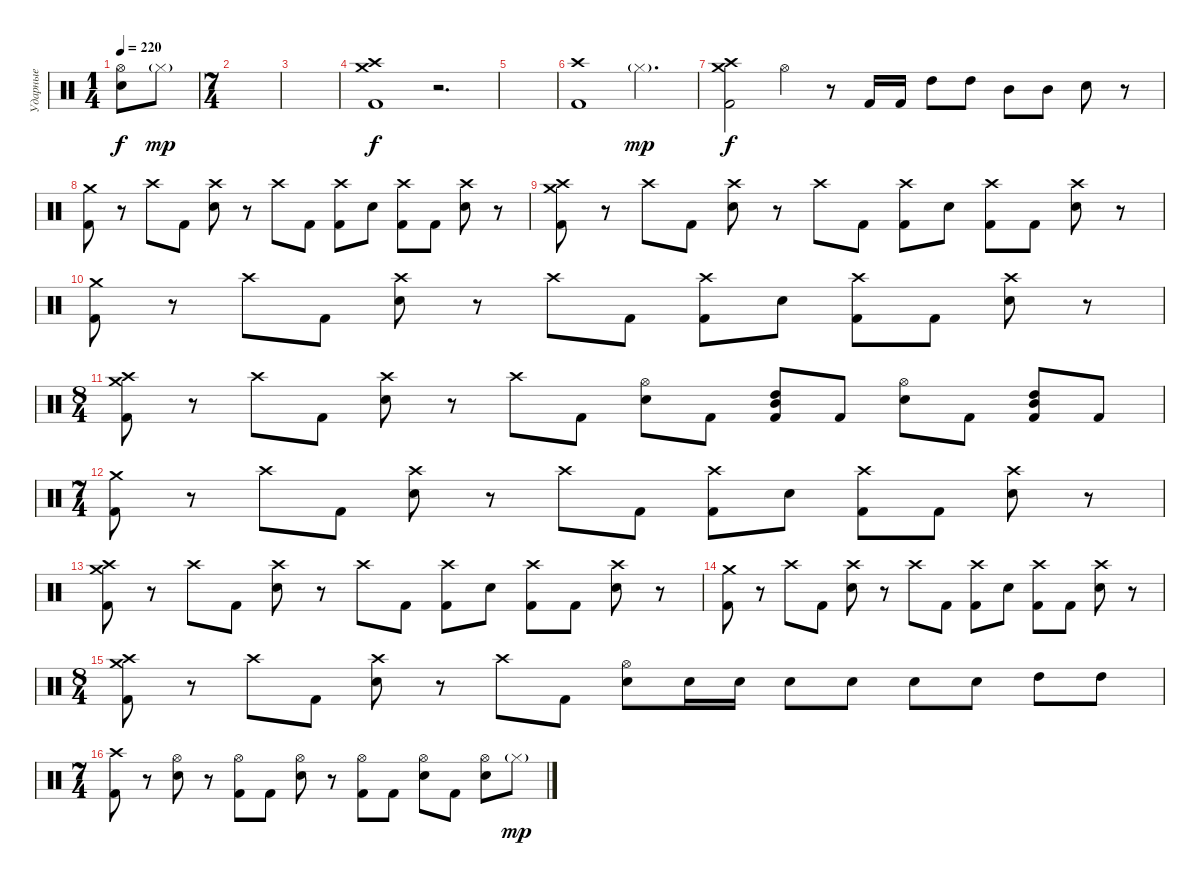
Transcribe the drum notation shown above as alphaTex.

\track ("Ударные" "Ударные") {instrument percussion}
\staff {score}
\articulation defaults
\ts (1 4)
\tempo 220
\clef neutral
\ks c
("Hi-Hat (open)" "Electric Snare (hit)").8{dy f} "Hi-Hat (closed)"{g}.8{dy mp} |
\ts (7 4)
|
|
("Crash high (hit)" "Crash medium (hit)" "Kick (hit) 2").1{dy f} r.2{d} |
|
("Crash high (hit)" "Kick (hit) 2").1 "Hi-Hat (closed)"{g}.2{d dy mp} |
("Crash high (hit)" "Crash medium (hit)" "Kick (hit) 2").2{dy f} "Hi-Hat (open)".4 r.8 "Kick (hit) 2".16 "Kick (hit) 2".16 "High Tom (hit)".8 "High Tom (hit)".8 "Mid Tom (hit)".8 "Mid Tom (hit)".8 "Electric Snare (hit)".8 r.8 |
("Crash medium (hit)" "Kick (hit) 2").8 r.8 "Crash high (hit)".8 "Kick (hit) 2".8 ("Crash high (hit)" "Electric Snare (hit)").8 r.8 "Crash high (hit)".8 "Kick (hit) 2".8 ("Crash high (hit)" "Kick (hit) 2").8 "Electric Snare (hit)".8 ("Crash high (hit)" "Kick (hit) 2").8 "Kick (hit) 2".8 ("Crash high (hit)" "Electric Snare (hit)").8 r.8 |
("Crash medium (hit)" "Crash high (hit)" "Kick (hit) 2").8 r.8 "Crash high (hit)".8 "Kick (hit) 2".8 ("Crash high (hit)" "Electric Snare (hit)").8 r.8 "Crash high (hit)".8 "Kick (hit) 2".8 ("Crash high (hit)" "Kick (hit) 2").8 "Electric Snare (hit)".8 ("Crash high (hit)" "Kick (hit) 2").8 "Kick (hit) 2".8 ("Crash high (hit)" "Electric Snare (hit)").8 r.8 |
("Crash medium (hit)" "Kick (hit) 2").8 r.8 "Crash high (hit)".8 "Kick (hit) 2".8 ("Crash high (hit)" "Electric Snare (hit)").8 r.8 "Crash high (hit)".8 "Kick (hit) 2".8 ("Crash high (hit)" "Kick (hit) 2").8 "Electric Snare (hit)".8 ("Crash high (hit)" "Kick (hit) 2").8 "Kick (hit) 2".8 ("Crash high (hit)" "Electric Snare (hit)").8 r.8 |
\ts (8 4)
("Crash medium (hit)" "Crash high (hit)" "Kick (hit) 2").8 r.8 "Crash high (hit)".8 "Kick (hit) 2".8 ("Crash high (hit)" "Electric Snare (hit)").8 r.8 "Crash high (hit)".8 "Kick (hit) 2".8 ("Hi-Hat (open)" "Electric Snare (hit)").8 "Kick (hit) 2".8 ("Mid Tom (hit)" "High Tom (hit)" "Kick (hit) 2").8 "Kick (hit) 2".8 ("Hi-Hat (open)" "Electric Snare (hit)").8 "Kick (hit) 2".8 ("High Tom (hit)" "Mid Tom (hit)" "Kick (hit) 2").8 "Kick (hit) 2".8 |
\ts (7 4)
("Crash medium (hit)" "Kick (hit) 2").8 r.8 "Crash high (hit)".8 "Kick (hit) 2".8 ("Crash high (hit)" "Electric Snare (hit)").8 r.8 "Crash high (hit)".8 "Kick (hit) 2".8 ("Crash high (hit)" "Kick (hit) 2").8 "Electric Snare (hit)".8 ("Crash high (hit)" "Kick (hit) 2").8 "Kick (hit) 2".8 ("Crash high (hit)" "Electric Snare (hit)").8 r.8 |
("Crash medium (hit)" "Crash high (hit)" "Kick (hit) 2").8 r.8 "Crash high (hit)".8 "Kick (hit) 2".8 ("Crash high (hit)" "Electric Snare (hit)").8 r.8 "Crash high (hit)".8 "Kick (hit) 2".8 ("Crash high (hit)" "Kick (hit) 2").8 "Electric Snare (hit)".8 ("Crash high (hit)" "Kick (hit) 2").8 "Kick (hit) 2".8 ("Crash high (hit)" "Electric Snare (hit)").8 r.8 |
("Crash medium (hit)" "Kick (hit) 2").8 r.8 "Crash high (hit)".8 "Kick (hit) 2".8 ("Crash high (hit)" "Electric Snare (hit)").8 r.8 "Crash high (hit)".8 "Kick (hit) 2".8 ("Crash high (hit)" "Kick (hit) 2").8 "Electric Snare (hit)".8 ("Crash high (hit)" "Kick (hit) 2").8 "Kick (hit) 2".8 ("Crash high (hit)" "Electric Snare (hit)").8 r.8 |
\ts (8 4)
("Crash medium (hit)" "Crash high (hit)" "Kick (hit) 2").8 r.8 "Crash high (hit)".8 "Kick (hit) 2".8 ("Crash high (hit)" "Electric Snare (hit)").8 r.8 "Crash high (hit)".8 "Kick (hit) 2".8 ("Hi-Hat (open)" "Electric Snare (hit)").8 "Electric Snare (hit)".16 "Electric Snare (hit)".16 "Electric Snare (hit)".8 "Electric Snare (hit)".8 "Electric Snare (hit)".8 "Electric Snare (hit)".8 "High Tom (hit)".8 "High Tom (hit)".8 |
\ts (7 4)
("Crash high (hit)" "Kick (hit) 2").8 r.8 ("Hi-Hat (open)" "Electric Snare (hit)").8 r.8 ("Hi-Hat (open)" "Kick (hit) 2").8 "Kick (hit) 2".8 ("Hi-Hat (open)" "Electric Snare (hit)").8 r.8 ("Hi-Hat (open)" "Kick (hit) 2").8 "Kick (hit) 2".8 ("Hi-Hat (open)" "Electric Snare (hit)").8 "Kick (hit) 2".8 ("Hi-Hat (open)" "Electric Snare (hit)").8 "Hi-Hat (closed)"{g}.8{dy mp}
